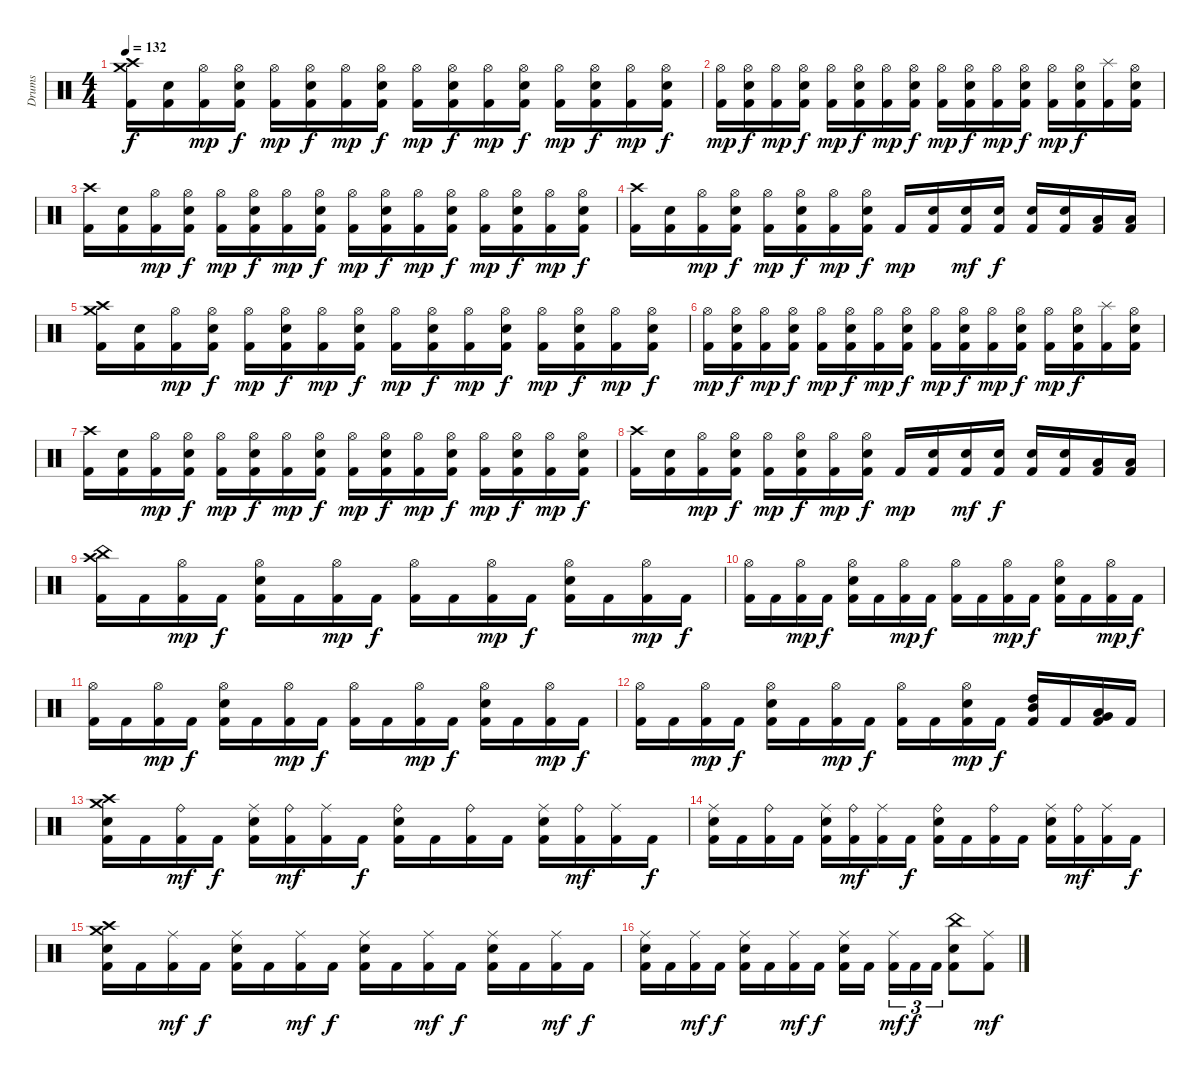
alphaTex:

\track ("Drums" "Drums") {instrument percussion}
\staff {score}
\articulation defaults
\ts (4 4)
\tempo 132
\clef neutral
\ks c
("Crash high (hit)" "Crash medium (hit)" "Kick (hit) 2").16{dy f} ("Electric Snare (hit)" "Kick (hit) 2").16 ("Hi-Hat (open)" "Kick (hit) 2").16{dy mp} ("Hi-Hat (open)" "Electric Snare (hit)" "Kick (hit) 2").16{dy f} ("Hi-Hat (open)" "Kick (hit) 2").16{dy mp} ("Hi-Hat (open)" "Electric Snare (hit)" "Kick (hit) 2").16{dy f} ("Hi-Hat (open)" "Kick (hit) 2").16{dy mp} ("Hi-Hat (open)" "Electric Snare (hit)" "Kick (hit) 2").16{dy f} ("Hi-Hat (open)" "Kick (hit) 2").16{dy mp} ("Hi-Hat (open)" "Electric Snare (hit)" "Kick (hit) 2").16{dy f} ("Hi-Hat (open)" "Kick (hit) 2").16{dy mp} ("Hi-Hat (open)" "Electric Snare (hit)" "Kick (hit) 2").16{dy f} ("Hi-Hat (open)" "Kick (hit) 2").16{dy mp} ("Hi-Hat (open)" "Electric Snare (hit)" "Kick (hit) 2").16{dy f} ("Hi-Hat (open)" "Kick (hit) 2").16{dy mp} ("Hi-Hat (open)" "Electric Snare (hit)" "Kick (hit) 2").16{dy f} |
("Hi-Hat (open)" "Kick (hit) 2").16{dy mp} ("Hi-Hat (open)" "Electric Snare (hit)" "Kick (hit) 2").16{dy f} ("Hi-Hat (open)" "Kick (hit) 2").16{dy mp} ("Hi-Hat (open)" "Electric Snare (hit)" "Kick (hit) 2").16{dy f} ("Hi-Hat (open)" "Kick (hit) 2").16{dy mp} ("Hi-Hat (open)" "Electric Snare (hit)" "Kick (hit) 2").16{dy f} ("Hi-Hat (open)" "Kick (hit) 2").16{dy mp} ("Hi-Hat (open)" "Electric Snare (hit)" "Kick (hit) 2").16{dy f} ("Hi-Hat (open)" "Kick (hit) 2").16{dy mp} ("Hi-Hat (open)" "Electric Snare (hit)" "Kick (hit) 2").16{dy f} ("Hi-Hat (open)" "Kick (hit) 2").16{dy mp} ("Hi-Hat (open)" "Electric Snare (hit)" "Kick (hit) 2").16{dy f} ("Hi-Hat (open)" "Kick (hit) 2").16{dy mp} ("Hi-Hat (open)" "Electric Snare (hit)" "Kick (hit) 2").16{dy f} ("Splash (hit)" "Kick (hit) 2").16 ("Hi-Hat (open)" "Electric Snare (hit)" "Kick (hit) 2").16 |
("Crash high (hit)" "Kick (hit) 2").16 ("Electric Snare (hit)" "Kick (hit) 2").16 ("Hi-Hat (open)" "Kick (hit) 2").16{dy mp} ("Hi-Hat (open)" "Electric Snare (hit)" "Kick (hit) 2").16{dy f} ("Hi-Hat (open)" "Kick (hit) 2").16{dy mp} ("Hi-Hat (open)" "Electric Snare (hit)" "Kick (hit) 2").16{dy f} ("Hi-Hat (open)" "Kick (hit) 2").16{dy mp} ("Hi-Hat (open)" "Electric Snare (hit)" "Kick (hit) 2").16{dy f} ("Hi-Hat (open)" "Kick (hit) 2").16{dy mp} ("Hi-Hat (open)" "Electric Snare (hit)" "Kick (hit) 2").16{dy f} ("Hi-Hat (open)" "Kick (hit) 2").16{dy mp} ("Hi-Hat (open)" "Electric Snare (hit)" "Kick (hit) 2").16{dy f} ("Hi-Hat (open)" "Kick (hit) 2").16{dy mp} ("Hi-Hat (open)" "Electric Snare (hit)" "Kick (hit) 2").16{dy f} ("Hi-Hat (open)" "Kick (hit) 2").16{dy mp} ("Hi-Hat (open)" "Electric Snare (hit)" "Kick (hit) 2").16{dy f} |
("Crash high (hit)" "Kick (hit) 2").16 ("Electric Snare (hit)" "Kick (hit) 2").16 ("Hi-Hat (open)" "Kick (hit) 2").16{dy mp} ("Hi-Hat (open)" "Electric Snare (hit)" "Kick (hit) 2").16{dy f} ("Hi-Hat (open)" "Kick (hit) 2").16{dy mp} ("Hi-Hat (open)" "Electric Snare (hit)" "Kick (hit) 2").16{dy f} ("Hi-Hat (open)" "Kick (hit) 2").16{dy mp} ("Hi-Hat (open)" "Electric Snare (hit)" "Kick (hit) 2").16{dy f} "Kick (hit) 2".16{dy mp} ("Electric Snare (hit)" "Kick (hit) 2").16 ("Electric Snare (hit)" "Kick (hit) 2").16{dy mf} ("Electric Snare (hit)" "Kick (hit) 2").16{dy f} ("Electric Snare (hit)" "Kick (hit) 2").16 ("Electric Snare (hit)" "Kick (hit) 2").16 ("Low Tom (hit)" "Kick (hit) 2").16 ("Low Tom (hit)" "Kick (hit) 2").16 |
("Crash high (hit)" "Crash medium (hit)" "Kick (hit) 2").16 ("Electric Snare (hit)" "Kick (hit) 2").16 ("Hi-Hat (open)" "Kick (hit) 2").16{dy mp} ("Hi-Hat (open)" "Electric Snare (hit)" "Kick (hit) 2").16{dy f} ("Hi-Hat (open)" "Kick (hit) 2").16{dy mp} ("Hi-Hat (open)" "Electric Snare (hit)" "Kick (hit) 2").16{dy f} ("Hi-Hat (open)" "Kick (hit) 2").16{dy mp} ("Hi-Hat (open)" "Electric Snare (hit)" "Kick (hit) 2").16{dy f} ("Hi-Hat (open)" "Kick (hit) 2").16{dy mp} ("Hi-Hat (open)" "Electric Snare (hit)" "Kick (hit) 2").16{dy f} ("Hi-Hat (open)" "Kick (hit) 2").16{dy mp} ("Hi-Hat (open)" "Electric Snare (hit)" "Kick (hit) 2").16{dy f} ("Hi-Hat (open)" "Kick (hit) 2").16{dy mp} ("Hi-Hat (open)" "Electric Snare (hit)" "Kick (hit) 2").16{dy f} ("Hi-Hat (open)" "Kick (hit) 2").16{dy mp} ("Hi-Hat (open)" "Electric Snare (hit)" "Kick (hit) 2").16{dy f} |
("Hi-Hat (open)" "Kick (hit) 2").16{dy mp} ("Hi-Hat (open)" "Electric Snare (hit)" "Kick (hit) 2").16{dy f} ("Hi-Hat (open)" "Kick (hit) 2").16{dy mp} ("Hi-Hat (open)" "Electric Snare (hit)" "Kick (hit) 2").16{dy f} ("Hi-Hat (open)" "Kick (hit) 2").16{dy mp} ("Hi-Hat (open)" "Electric Snare (hit)" "Kick (hit) 2").16{dy f} ("Hi-Hat (open)" "Kick (hit) 2").16{dy mp} ("Hi-Hat (open)" "Electric Snare (hit)" "Kick (hit) 2").16{dy f} ("Hi-Hat (open)" "Kick (hit) 2").16{dy mp} ("Hi-Hat (open)" "Electric Snare (hit)" "Kick (hit) 2").16{dy f} ("Hi-Hat (open)" "Kick (hit) 2").16{dy mp} ("Hi-Hat (open)" "Electric Snare (hit)" "Kick (hit) 2").16{dy f} ("Hi-Hat (open)" "Kick (hit) 2").16{dy mp} ("Hi-Hat (open)" "Electric Snare (hit)" "Kick (hit) 2").16{dy f} ("Splash (hit)" "Kick (hit) 2").16 ("Hi-Hat (open)" "Electric Snare (hit)" "Kick (hit) 2").16 |
("Crash high (hit)" "Kick (hit) 2").16 ("Electric Snare (hit)" "Kick (hit) 2").16 ("Hi-Hat (open)" "Kick (hit) 2").16{dy mp} ("Hi-Hat (open)" "Electric Snare (hit)" "Kick (hit) 2").16{dy f} ("Hi-Hat (open)" "Kick (hit) 2").16{dy mp} ("Hi-Hat (open)" "Electric Snare (hit)" "Kick (hit) 2").16{dy f} ("Hi-Hat (open)" "Kick (hit) 2").16{dy mp} ("Hi-Hat (open)" "Electric Snare (hit)" "Kick (hit) 2").16{dy f} ("Hi-Hat (open)" "Kick (hit) 2").16{dy mp} ("Hi-Hat (open)" "Electric Snare (hit)" "Kick (hit) 2").16{dy f} ("Hi-Hat (open)" "Kick (hit) 2").16{dy mp} ("Hi-Hat (open)" "Electric Snare (hit)" "Kick (hit) 2").16{dy f} ("Hi-Hat (open)" "Kick (hit) 2").16{dy mp} ("Hi-Hat (open)" "Electric Snare (hit)" "Kick (hit) 2").16{dy f} ("Hi-Hat (open)" "Kick (hit) 2").16{dy mp} ("Hi-Hat (open)" "Electric Snare (hit)" "Kick (hit) 2").16{dy f} |
("Crash high (hit)" "Kick (hit) 2").16 ("Electric Snare (hit)" "Kick (hit) 2").16 ("Hi-Hat (open)" "Kick (hit) 2").16{dy mp} ("Hi-Hat (open)" "Electric Snare (hit)" "Kick (hit) 2").16{dy f} ("Hi-Hat (open)" "Kick (hit) 2").16{dy mp} ("Hi-Hat (open)" "Electric Snare (hit)" "Kick (hit) 2").16{dy f} ("Hi-Hat (open)" "Kick (hit) 2").16{dy mp} ("Hi-Hat (open)" "Electric Snare (hit)" "Kick (hit) 2").16{dy f} "Kick (hit) 2".16{dy mp} ("Electric Snare (hit)" "Kick (hit) 2").16 ("Electric Snare (hit)" "Kick (hit) 2").16{dy mf} ("Electric Snare (hit)" "Kick (hit) 2").16{dy f} ("Electric Snare (hit)" "Kick (hit) 2").16 ("Electric Snare (hit)" "Kick (hit) 2").16 ("Low Tom (hit)" "Kick (hit) 2").16 ("Low Tom (hit)" "Kick (hit) 2").16 |
("Crash high (hit)" "China (hit)" "Kick (hit) 2").16 "Kick (hit) 2".16 ("Hi-Hat (open)" "Kick (hit) 2").16{dy mp} "Kick (hit) 2".16{dy f} ("Hi-Hat (open)" "Electric Snare (hit)" "Kick (hit) 2").16 "Kick (hit) 2".16 ("Hi-Hat (open)" "Kick (hit) 2").16{dy mp} "Kick (hit) 2".16{dy f} ("Hi-Hat (open)" "Kick (hit) 2").16 "Kick (hit) 2".16 ("Hi-Hat (open)" "Kick (hit) 2").16{dy mp} "Kick (hit) 2".16{dy f} ("Hi-Hat (open)" "Electric Snare (hit)" "Kick (hit) 2").16 "Kick (hit) 2".16 ("Hi-Hat (open)" "Kick (hit) 2").16{dy mp} "Kick (hit) 2".16{dy f} |
("Hi-Hat (open)" "Kick (hit) 2").16 "Kick (hit) 2".16 ("Hi-Hat (open)" "Kick (hit) 2").16{dy mp} "Kick (hit) 2".16{dy f} ("Hi-Hat (open)" "Electric Snare (hit)" "Kick (hit) 2").16 "Kick (hit) 2".16 ("Hi-Hat (open)" "Kick (hit) 2").16{dy mp} "Kick (hit) 2".16{dy f} ("Hi-Hat (open)" "Kick (hit) 2").16 "Kick (hit) 2".16 ("Hi-Hat (open)" "Kick (hit) 2").16{dy mp} "Kick (hit) 2".16{dy f} ("Hi-Hat (open)" "Electric Snare (hit)" "Kick (hit) 2").16 "Kick (hit) 2".16 ("Hi-Hat (open)" "Kick (hit) 2").16{dy mp} "Kick (hit) 2".16{dy f} |
("Hi-Hat (open)" "Kick (hit) 2").16 "Kick (hit) 2".16 ("Hi-Hat (open)" "Kick (hit) 2").16{dy mp} "Kick (hit) 2".16{dy f} ("Hi-Hat (open)" "Electric Snare (hit)" "Kick (hit) 2").16 "Kick (hit) 2".16 ("Hi-Hat (open)" "Kick (hit) 2").16{dy mp} "Kick (hit) 2".16{dy f} ("Hi-Hat (open)" "Kick (hit) 2").16 "Kick (hit) 2".16 ("Hi-Hat (open)" "Kick (hit) 2").16{dy mp} "Kick (hit) 2".16{dy f} ("Hi-Hat (open)" "Electric Snare (hit)" "Kick (hit) 2").16 "Kick (hit) 2".16 ("Hi-Hat (open)" "Kick (hit) 2").16{dy mp} "Kick (hit) 2".16{dy f} |
("Hi-Hat (open)" "Kick (hit) 2").16 "Kick (hit) 2".16 ("Hi-Hat (open)" "Kick (hit) 2").16{dy mp} "Kick (hit) 2".16{dy f} ("Hi-Hat (open)" "Electric Snare (hit)" "Kick (hit) 2").16 "Kick (hit) 2".16 ("Hi-Hat (open)" "Kick (hit) 2").16{dy mp} "Kick (hit) 2".16{dy f} ("Hi-Hat (open)" "Kick (hit) 2").16 "Kick (hit) 2".16 ("Hi-Hat (open)" "Electric Snare (hit)" "Kick (hit) 2").16{dy mp} "Kick (hit) 2".16{dy f} ("Mid Tom (hit)" "High Tom (hit)" "Kick (hit) 2").16 "Kick (hit) 2".16 ("Very Low Tom (hit)" "Low Tom (hit)" "Kick (hit) 2").16 "Kick (hit) 2".16 |
("Crash high (hit)" "Crash medium (hit)" "Electric Snare (hit)" "Kick (hit) 2").16 "Kick (hit) 2".16 ("Ride (bell)" "Kick (hit) 2").16{dy mf} "Kick (hit) 2".16{dy f} ("Ride (middle)" "Electric Snare (hit)" "Kick (hit) 2").16 ("Ride (bell)" "Kick (hit) 2").16{dy mf} ("Ride (middle)" "Kick (hit) 2").16 "Kick (hit) 2".16{dy f} ("Ride (bell)" "Electric Snare (hit)" "Kick (hit) 2").16 "Kick (hit) 2".16 ("Ride (bell)" "Kick (hit) 2").16 "Kick (hit) 2".16 ("Ride (middle)" "Electric Snare (hit)" "Kick (hit) 2").16 ("Ride (bell)" "Kick (hit) 2").16{dy mf} ("Ride (middle)" "Kick (hit) 2").16 "Kick (hit) 2".16{dy f} |
("Ride (middle)" "Electric Snare (hit)" "Kick (hit) 2").16 "Kick (hit) 2".16 ("Ride (bell)" "Kick (hit) 2").16 "Kick (hit) 2".16 ("Ride (middle)" "Electric Snare (hit)" "Kick (hit) 2").16 ("Ride (bell)" "Kick (hit) 2").16{dy mf} ("Ride (middle)" "Kick (hit) 2").16 "Kick (hit) 2".16{dy f} ("Ride (bell)" "Electric Snare (hit)" "Kick (hit) 2").16 "Kick (hit) 2".16 ("Ride (bell)" "Kick (hit) 2").16 "Kick (hit) 2".16 ("Ride (middle)" "Electric Snare (hit)" "Kick (hit) 2").16 ("Ride (bell)" "Kick (hit) 2").16{dy mf} ("Ride (middle)" "Kick (hit) 2").16 "Kick (hit) 2".16{dy f} |
("Crash high (hit)" "Crash medium (hit)" "Electric Snare (hit)" "Kick (hit) 2").16 "Kick (hit) 2".16 ("Ride (middle)" "Kick (hit) 2").16{dy mf} "Kick (hit) 2".16{dy f} ("Ride (middle)" "Electric Snare (hit)" "Kick (hit) 2").16 "Kick (hit) 2".16 ("Ride (middle)" "Kick (hit) 2").16{dy mf} "Kick (hit) 2".16{dy f} ("Ride (middle)" "Electric Snare (hit)" "Kick (hit) 2").16 "Kick (hit) 2".16 ("Ride (middle)" "Kick (hit) 2").16{dy mf} "Kick (hit) 2".16{dy f} ("Ride (middle)" "Electric Snare (hit)" "Kick (hit) 2").16 "Kick (hit) 2".16 ("Ride (middle)" "Kick (hit) 2").16{dy mf} "Kick (hit) 2".16{dy f} |
("Ride (middle)" "Electric Snare (hit)" "Kick (hit) 2").16 "Kick (hit) 2".16 ("Ride (middle)" "Kick (hit) 2").16{dy mf} "Kick (hit) 2".16{dy f} ("Ride (middle)" "Electric Snare (hit)" "Kick (hit) 2").16 "Kick (hit) 2".16 ("Ride (middle)" "Kick (hit) 2").16{dy mf} "Kick (hit) 2".16{dy f} ("Ride (middle)" "Electric Snare (hit)" "Kick (hit) 2").16 "Kick (hit) 2".16{beam splitsecondary} ("Ride (middle)" "Kick (hit) 2").16{tu (3 2) dy mf} "Kick (hit) 2".16{tu (3 2) dy f} "Kick (hit) 2".16{tu (3 2)} ("China (hit)" "Electric Snare (hit)" "Kick (hit) 2").8 ("Ride (middle)" "Kick (hit) 2").8{dy mf}
